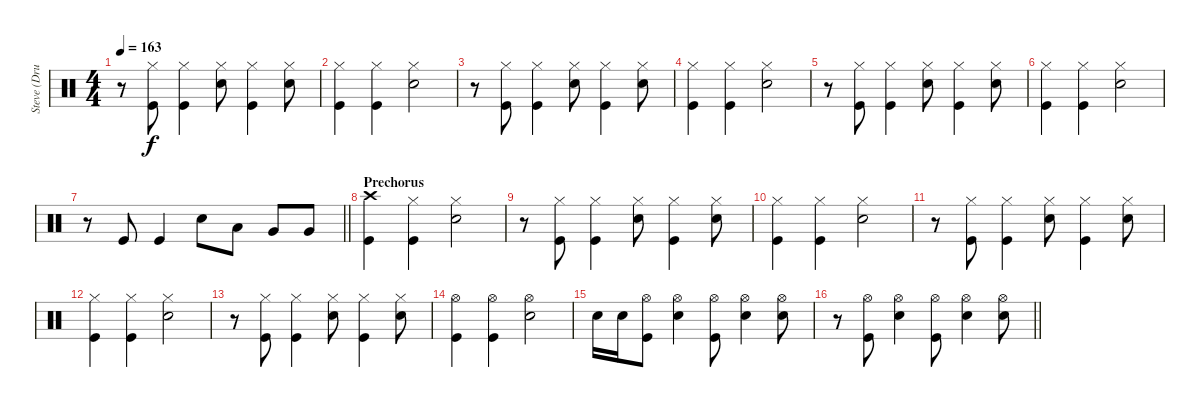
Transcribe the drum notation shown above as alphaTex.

\track ("Steve (Drums)" "Steve (Dru") {instrument percussion}
\staff {score}
\articulation defaults
\ts (4 4)
\tempo 163
\clef neutral
\ks c
r.8{dy f} ("Hi-Hat (closed)" "Kick (hit)").8 ("Hi-Hat (closed)" "Kick (hit)").4 ("Hi-Hat (closed)" "Electric Snare (hit)").8 ("Hi-Hat (closed)" "Kick (hit)").4 ("Hi-Hat (closed)" "Electric Snare (hit)").8 |
("Hi-Hat (closed)" "Kick (hit)").4 ("Hi-Hat (closed)" "Kick (hit)").4 ("Hi-Hat (closed)" "Electric Snare (hit)").2 |
r.8 ("Hi-Hat (closed)" "Kick (hit)").8 ("Hi-Hat (closed)" "Kick (hit)").4 ("Hi-Hat (closed)" "Electric Snare (hit)").8 ("Hi-Hat (closed)" "Kick (hit)").4 ("Hi-Hat (closed)" "Electric Snare (hit)").8 |
("Hi-Hat (closed)" "Kick (hit)").4 ("Hi-Hat (closed)" "Kick (hit)").4 ("Hi-Hat (closed)" "Electric Snare (hit)").2 |
r.8 ("Hi-Hat (closed)" "Kick (hit)").8 ("Hi-Hat (closed)" "Kick (hit)").4 ("Hi-Hat (closed)" "Electric Snare (hit)").8 ("Hi-Hat (closed)" "Kick (hit)").4 ("Hi-Hat (closed)" "Electric Snare (hit)").8 |
("Hi-Hat (closed)" "Kick (hit)").4 ("Hi-Hat (closed)" "Kick (hit)").4 ("Hi-Hat (closed)" "Electric Snare (hit)").2 |
\barLineRight lightlight
r.8 "Kick (hit)".8 "Kick (hit)".4 "Electric Snare (hit)".8 "Low Tom (hit)".8 "Very Low Tom (hit)".8 "Very Low Tom (hit)".8 |
\section ("" "Prechorus")
("Crash high (hit)" "Kick (hit)").4 ("Hi-Hat (closed)" "Kick (hit)").4 ("Hi-Hat (closed)" "Electric Snare (hit)").2 |
r.8 ("Hi-Hat (closed)" "Kick (hit)").8 ("Hi-Hat (closed)" "Kick (hit)").4 ("Hi-Hat (closed)" "Electric Snare (hit)").8 ("Hi-Hat (closed)" "Kick (hit)").4 ("Hi-Hat (closed)" "Electric Snare (hit)").8 |
("Hi-Hat (closed)" "Kick (hit)").4 ("Hi-Hat (closed)" "Kick (hit)").4 ("Hi-Hat (closed)" "Electric Snare (hit)").2 |
r.8 ("Hi-Hat (closed)" "Kick (hit)").8 ("Hi-Hat (closed)" "Kick (hit)").4 ("Hi-Hat (closed)" "Electric Snare (hit)").8 ("Hi-Hat (closed)" "Kick (hit)").4 ("Hi-Hat (closed)" "Electric Snare (hit)").8 |
("Hi-Hat (closed)" "Kick (hit)").4 ("Hi-Hat (closed)" "Kick (hit)").4 ("Hi-Hat (closed)" "Electric Snare (hit)").2 |
r.8 ("Hi-Hat (closed)" "Kick (hit)").8 ("Hi-Hat (closed)" "Kick (hit)").4 ("Hi-Hat (closed)" "Electric Snare (hit)").8 ("Hi-Hat (closed)" "Kick (hit)").4 ("Hi-Hat (closed)" "Electric Snare (hit)").8 |
("Hi-Hat (open)" "Kick (hit)").4 ("Hi-Hat (open)" "Kick (hit)").4 ("Hi-Hat (open)" "Electric Snare (hit)").2 |
"Electric Snare (hit)".16 "Electric Snare (hit)".16 ("Hi-Hat (open)" "Kick (hit)").8 ("Hi-Hat (open)" "Electric Snare (hit)").4 ("Hi-Hat (open)" "Kick (hit)").8 ("Hi-Hat (open)" "Electric Snare (hit)").4 ("Hi-Hat (open)" "Electric Snare (hit)").8 |
\barLineRight lightlight
r.8 ("Hi-Hat (open)" "Kick (hit)").8 ("Hi-Hat (open)" "Electric Snare (hit)").4 ("Hi-Hat (open)" "Kick (hit)").8 ("Hi-Hat (open)" "Electric Snare (hit)").4 ("Hi-Hat (open)" "Electric Snare (hit)").8
